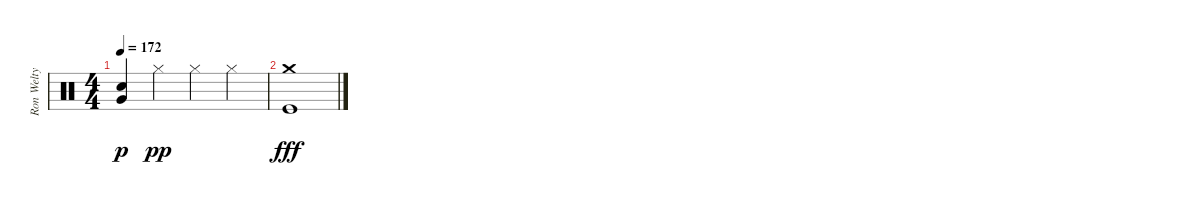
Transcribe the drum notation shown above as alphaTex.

\track ("Ron Welty (John Wnek's tab)" "Ron Welty ") {instrument percussion}
\staff {score}
\articulation defaults
\ts (4 4)
\tempo 172
\clef neutral
\ks c
("Snare (hit) 2" "Very Low Tom (hit)").4{dy p} "Hi-Hat (closed)".4{dy pp} "Hi-Hat (closed)".4 "Hi-Hat (closed)".4 |
("Crash medium (hit)" "Kick (hit)").1{dy fff}
